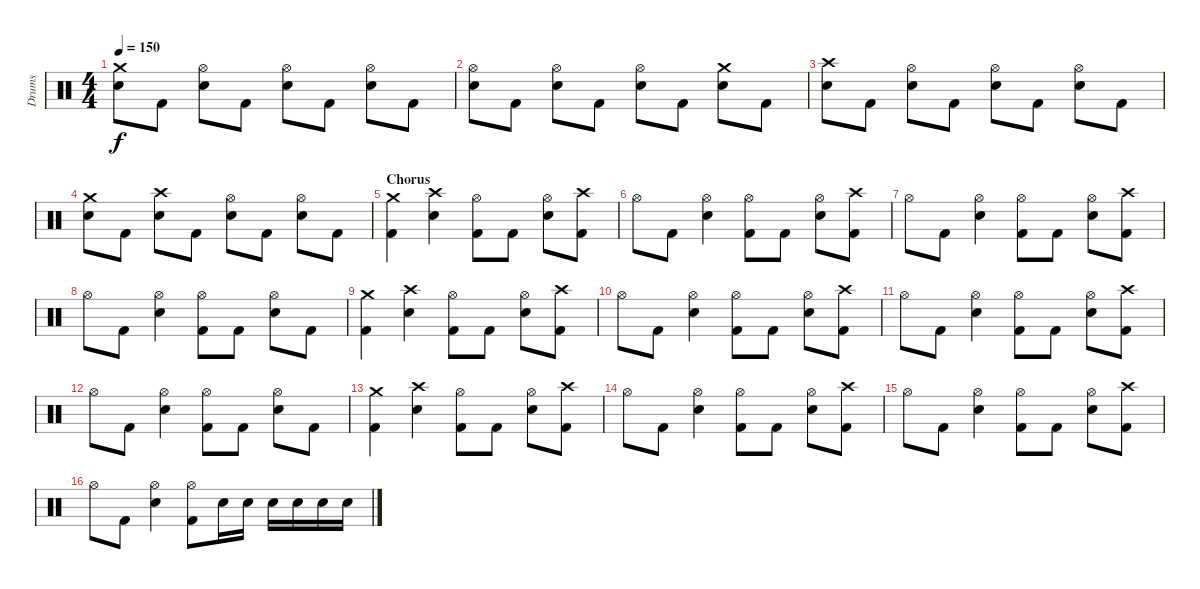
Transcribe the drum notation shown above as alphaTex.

\track ("Drums" "Drums") {instrument percussion}
\staff {score}
\articulation defaults
\ts (4 4)
\tempo 150
\clef neutral
\ks c
("Crash medium (hit)" "Snare (hit) 2").8{dy f} "Kick (hit) 2".8 ("Hi-Hat (open)" "Snare (hit) 2").8 "Kick (hit) 2".8 ("Hi-Hat (open)" "Snare (hit) 2").8 "Kick (hit) 2".8 ("Hi-Hat (open)" "Snare (hit) 2").8 "Kick (hit) 2".8 |
("Hi-Hat (open)" "Snare (hit) 2").8 "Kick (hit) 2".8 ("Hi-Hat (open)" "Snare (hit) 2").8 "Kick (hit) 2".8 ("Hi-Hat (open)" "Snare (hit) 2").8 "Kick (hit) 2".8 ("Crash medium (hit)" "Snare (hit) 2").8 "Kick (hit) 2".8 |
("Crash high (hit)" "Snare (hit) 2").8 "Kick (hit) 2".8 ("Hi-Hat (open)" "Snare (hit) 2").8 "Kick (hit) 2".8 ("Hi-Hat (open)" "Snare (hit) 2").8 "Kick (hit) 2".8 ("Hi-Hat (open)" "Snare (hit) 2").8 "Kick (hit) 2".8 |
("Crash medium (hit)" "Snare (hit) 2").8 "Kick (hit) 2".8 ("Crash high (hit)" "Snare (hit) 2").8 "Kick (hit) 2".8 ("Hi-Hat (open)" "Snare (hit) 2").8 "Kick (hit) 2".8 ("Hi-Hat (open)" "Snare (hit) 2").8 "Kick (hit) 2".8 |
\section ("" "Chorus")
("Crash medium (hit)" "Kick (hit) 2").4 ("Crash high (hit)" "Snare (hit) 2").4 ("Hi-Hat (open)" "Kick (hit) 2").8 "Kick (hit) 2".8 ("Hi-Hat (open)" "Snare (hit) 2").8 ("Crash high (hit)" "Kick (hit) 2").8 |
"Hi-Hat (open)".8 "Kick (hit) 2".8 ("Hi-Hat (open)" "Snare (hit) 2").4 ("Hi-Hat (open)" "Kick (hit) 2").8 "Kick (hit) 2".8 ("Hi-Hat (open)" "Snare (hit) 2").8 ("Crash high (hit)" "Kick (hit) 2").8 |
"Hi-Hat (open)".8 "Kick (hit) 2".8 ("Hi-Hat (open)" "Snare (hit) 2").4 ("Hi-Hat (open)" "Kick (hit) 2").8 "Kick (hit) 2".8 ("Hi-Hat (open)" "Snare (hit) 2").8 ("Crash high (hit)" "Kick (hit) 2").8 |
"Hi-Hat (open)".8 "Kick (hit) 2".8 ("Hi-Hat (open)" "Snare (hit) 2").4 ("Hi-Hat (open)" "Kick (hit) 2").8 "Kick (hit) 2".8 ("Hi-Hat (open)" "Snare (hit) 2").8 "Kick (hit) 2".8 |
\section ("" "")
("Crash medium (hit)" "Kick (hit) 2").4 ("Crash high (hit)" "Snare (hit) 2").4 ("Hi-Hat (open)" "Kick (hit) 2").8 "Kick (hit) 2".8 ("Hi-Hat (open)" "Snare (hit) 2").8 ("Crash high (hit)" "Kick (hit) 2").8 |
"Hi-Hat (open)".8 "Kick (hit) 2".8 ("Hi-Hat (open)" "Snare (hit) 2").4 ("Hi-Hat (open)" "Kick (hit) 2").8 "Kick (hit) 2".8 ("Hi-Hat (open)" "Snare (hit) 2").8 ("Crash high (hit)" "Kick (hit) 2").8 |
"Hi-Hat (open)".8 "Kick (hit) 2".8 ("Hi-Hat (open)" "Snare (hit) 2").4 ("Hi-Hat (open)" "Kick (hit) 2").8 "Kick (hit) 2".8 ("Hi-Hat (open)" "Snare (hit) 2").8 ("Crash high (hit)" "Kick (hit) 2").8 |
"Hi-Hat (open)".8 "Kick (hit) 2".8 ("Hi-Hat (open)" "Snare (hit) 2").4 ("Hi-Hat (open)" "Kick (hit) 2").8 "Kick (hit) 2".8 ("Hi-Hat (open)" "Snare (hit) 2").8 "Kick (hit) 2".8 |
\section ("" "")
("Crash medium (hit)" "Kick (hit) 2").4 ("Crash high (hit)" "Snare (hit) 2").4 ("Hi-Hat (open)" "Kick (hit) 2").8 "Kick (hit) 2".8 ("Hi-Hat (open)" "Snare (hit) 2").8 ("Crash high (hit)" "Kick (hit) 2").8 |
"Hi-Hat (open)".8 "Kick (hit) 2".8 ("Hi-Hat (open)" "Snare (hit) 2").4 ("Hi-Hat (open)" "Kick (hit) 2").8 "Kick (hit) 2".8 ("Hi-Hat (open)" "Snare (hit) 2").8 ("Crash high (hit)" "Kick (hit) 2").8 |
"Hi-Hat (open)".8 "Kick (hit) 2".8 ("Hi-Hat (open)" "Snare (hit) 2").4 ("Hi-Hat (open)" "Kick (hit) 2").8 "Kick (hit) 2".8 ("Hi-Hat (open)" "Snare (hit) 2").8 ("Crash high (hit)" "Kick (hit) 2").8 |
"Hi-Hat (open)".8 "Kick (hit) 2".8 ("Hi-Hat (open)" "Snare (hit) 2").4 ("Hi-Hat (open)" "Kick (hit) 2").8 "Snare (hit) 2".16 "Snare (hit) 2".16 "Snare (hit) 2".16 "Snare (hit) 2".16 "Snare (hit) 2".16 "Snare (hit) 2".16
